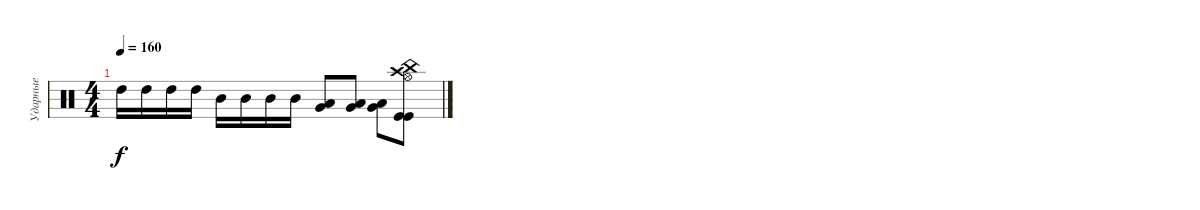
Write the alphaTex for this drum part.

\track ("Ударные" "Ударные") {instrument percussion}
\staff {score}
\articulation defaults
\ts (4 4)
\tempo 160
\clef neutral
\ks c "High Tom (hit)".16{dy f} "High Tom (hit)".16 "High Tom (hit)".16 "High Tom (hit)".16 "Mid Tom (hit)".16 "Mid Tom (hit)".16 "Mid Tom (hit)".16 "Mid Tom (hit)".16
("Very Low Tom (hit)" "Low Tom (hit)").8 ("Very Low Tom (hit)" "Low Tom (hit)").8 ("Low Floor Tom (hit)" "Very Low Tom (hit)").8 ("Crash high (hit)" "China (hit)" "Hi-Hat (open)" "Kick (hit)" "Kick (hit)").8
